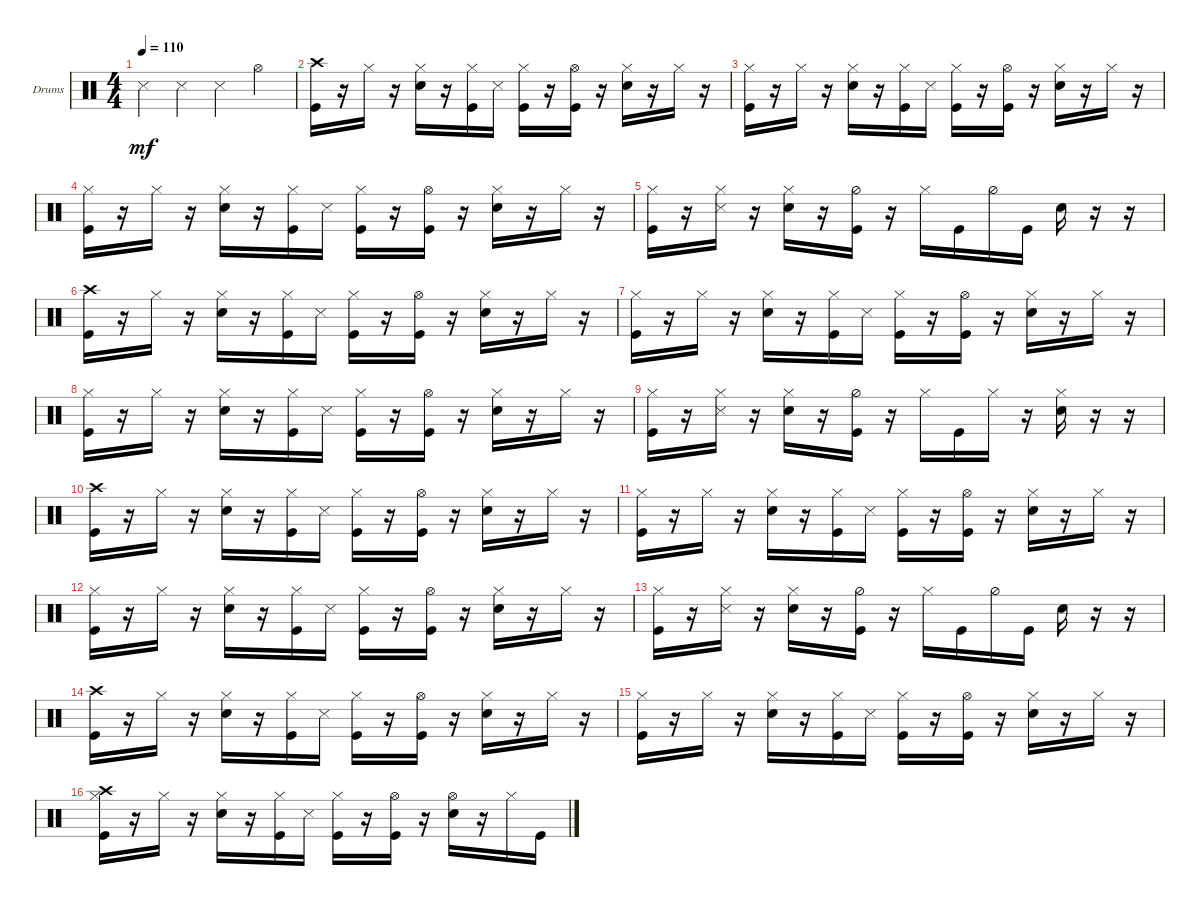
\defaultSystemsLayout 4
\bracketExtendMode groupsimilarinstruments
\firstSystemTrackNameOrientation horizontal
\otherSystemsTrackNameOrientation horizontal
\track ("Drumkit" "Drums") {instrument percussion}
\staff {score}
\articulation defaults
\ts (4 4)
\tempo 110
\clef neutral
\ks c "Snare (side stick) 3".4{dy mf} "Snare (side stick) 3".4 "Snare (side stick) 3".4 "Hi-Hat (open)".4
|
\scale
0.474178 ("Kick (hit)" "Crash high (hit)").16 r.16 "Hi-Hat (closed)".16 r.16 ("Snare (hit) 2" "Hi-Hat (closed)").16 r.16 ("Hi-Hat (closed)" "Kick (hit)").16 "Snare (side stick) 3".16 ("Hi-Hat (closed)" "Kick (hit)").16 r.16 ("Hi-Hat (open)" "Kick (hit)").16 r.16 ("Hi-Hat (closed)" "Snare (hit) 2").16 r.16 "Hi-Hat (closed)".16 r.16 |
\scale
0.262911 ("Kick (hit)" "Hi-Hat (closed)").16 r.16 "Hi-Hat (closed)".16 r.16 ("Snare (hit) 2" "Hi-Hat (closed)").16 r.16 ("Hi-Hat (closed)" "Kick (hit)").16 "Snare (side stick) 3".16 ("Hi-Hat (closed)" "Kick (hit)").16 r.16 ("Hi-Hat (open)" "Kick (hit)").16 r.16 ("Hi-Hat (closed)" "Snare (hit) 2").16 r.16 "Hi-Hat (closed)".16 r.16 |
\scale
0.262911 ("Kick (hit)" "Hi-Hat (closed)").16 r.16 "Hi-Hat (closed)".16 r.16 ("Snare (hit) 2" "Hi-Hat (closed)").16 r.16 ("Hi-Hat (closed)" "Kick (hit)").16 "Snare (side stick) 3".16 ("Hi-Hat (closed)" "Kick (hit)").16 r.16 ("Hi-Hat (open)" "Kick (hit)").16 r.16 ("Hi-Hat (closed)" "Snare (hit) 2").16 r.16 "Hi-Hat (closed)".16 r.16 |
\scale
0.333333 ("Hi-Hat (closed)" "Kick (hit)").16 r.16 ("Hi-Hat (closed)" "Snare (side stick) 3").16 r.16 ("Hi-Hat (closed)" "Snare (hit) 2").16 r.16 ("Hi-Hat (half)" "Kick (hit)").16 r.16 "Hi-Hat (closed)".16 "Kick (hit)".16 "Hi-Hat (half)".16 "Kick (hit)".16 "Snare (hit) 2".16 r.16 r.16 |
\scale
0.333333 ("Kick (hit)" "Crash high (hit)").16 r.16 "Hi-Hat (closed)".16 r.16 ("Snare (hit) 2" "Hi-Hat (closed)").16 r.16 ("Hi-Hat (closed)" "Kick (hit)").16 "Snare (side stick) 3".16 ("Hi-Hat (closed)" "Kick (hit)").16 r.16 ("Hi-Hat (open)" "Kick (hit)").16 r.16 ("Hi-Hat (closed)" "Snare (hit) 2").16 r.16 "Hi-Hat (closed)".16 r.16 |
\scale
0.333333 ("Kick (hit)" "Hi-Hat (closed)").16 r.16 "Hi-Hat (closed)".16 r.16 ("Snare (hit) 2" "Hi-Hat (closed)").16 r.16 ("Hi-Hat (closed)" "Kick (hit)").16 "Snare (side stick) 3".16 ("Hi-Hat (closed)" "Kick (hit)").16 r.16 ("Hi-Hat (open)" "Kick (hit)").16 r.16 ("Hi-Hat (closed)" "Snare (hit) 2").16 r.16 "Hi-Hat (closed)".16 r.16 |
\scale
0.333333 ("Kick (hit)" "Hi-Hat (closed)").16 r.16 "Hi-Hat (closed)".16 r.16 ("Snare (hit) 2" "Hi-Hat (closed)").16 r.16 ("Hi-Hat (closed)" "Kick (hit)").16 "Snare (side stick) 3".16 ("Hi-Hat (closed)" "Kick (hit)").16 r.16 ("Hi-Hat (open)" "Kick (hit)").16 r.16 ("Hi-Hat (closed)" "Snare (hit) 2").16 r.16 "Hi-Hat (closed)".16 r.16 |
\scale
0.333333 ("Hi-Hat (closed)" "Kick (hit)").16 r.16 ("Hi-Hat (closed)" "Snare (side stick) 3").16 r.16 ("Hi-Hat (closed)" "Snare (hit) 2").16 r.16 ("Hi-Hat (half)" "Kick (hit)").16 r.16 "Hi-Hat (closed)".16 "Kick (hit)".16 "Hi-Hat (closed)".16 r.16 ("Snare (hit) 2" "Hi-Hat (closed)").16 r.16 r.16 |
\scale
0.333333 ("Kick (hit)" "Crash high (hit)").16 r.16 "Hi-Hat (closed)".16 r.16 ("Snare (hit) 2" "Hi-Hat (closed)").16 r.16 ("Hi-Hat (closed)" "Kick (hit)").16 "Snare (side stick) 3".16 ("Hi-Hat (closed)" "Kick (hit)").16 r.16 ("Hi-Hat (open)" "Kick (hit)").16 r.16 ("Hi-Hat (closed)" "Snare (hit) 2").16 r.16 "Hi-Hat (closed)".16 r.16 |
\scale
0.333333 ("Kick (hit)" "Hi-Hat (closed)").16 r.16 "Hi-Hat (closed)".16 r.16 ("Snare (hit) 2" "Hi-Hat (closed)").16 r.16 ("Hi-Hat (closed)" "Kick (hit)").16 "Snare (side stick) 3".16 ("Hi-Hat (closed)" "Kick (hit)").16 r.16 ("Hi-Hat (open)" "Kick (hit)").16 r.16 ("Hi-Hat (closed)" "Snare (hit) 2").16 r.16 "Hi-Hat (closed)".16 r.16 |
\scale
0.333333 ("Kick (hit)" "Hi-Hat (closed)").16 r.16 "Hi-Hat (closed)".16 r.16 ("Snare (hit) 2" "Hi-Hat (closed)").16 r.16 ("Hi-Hat (closed)" "Kick (hit)").16 "Snare (side stick) 3".16 ("Hi-Hat (closed)" "Kick (hit)").16 r.16 ("Hi-Hat (open)" "Kick (hit)").16 r.16 ("Hi-Hat (closed)" "Snare (hit) 2").16 r.16 "Hi-Hat (closed)".16 r.16 |
\scale
0.333333 ("Hi-Hat (closed)" "Kick (hit)").16 r.16 ("Hi-Hat (closed)" "Snare (side stick) 3").16 r.16 ("Hi-Hat (closed)" "Snare (hit) 2").16 r.16 ("Hi-Hat (half)" "Kick (hit)").16 r.16 "Hi-Hat (closed)".16 "Kick (hit)".16 "Hi-Hat (half)".16 "Kick (hit)".16 "Snare (hit) 2".16 r.16 r.16 |
\scale
0.333333 ("Kick (hit)" "Crash high (hit)").16 r.16 "Hi-Hat (closed)".16 r.16 ("Snare (hit) 2" "Hi-Hat (closed)").16 r.16 ("Hi-Hat (closed)" "Kick (hit)").16 "Snare (side stick) 3".16 ("Hi-Hat (closed)" "Kick (hit)").16 r.16 ("Hi-Hat (open)" "Kick (hit)").16 r.16 ("Hi-Hat (closed)" "Snare (hit) 2").16 r.16 "Hi-Hat (closed)".16 r.16 |
\scale
0.333333 ("Kick (hit)" "Hi-Hat (closed)").16 r.16 "Hi-Hat (closed)".16 r.16 ("Snare (hit) 2" "Hi-Hat (closed)").16 r.16 ("Hi-Hat (closed)" "Kick (hit)").16 "Snare (side stick) 3".16 ("Hi-Hat (closed)" "Kick (hit)").16 r.16 ("Hi-Hat (open)" "Kick (hit)").16 r.16 ("Hi-Hat (closed)" "Snare (hit) 2").16 r.16 "Hi-Hat (closed)".16 r.16 |
\scale
0.333333 ("Kick (hit)" "Hi-Hat (closed)" "Crash high (hit)").16 r.16 "Hi-Hat (closed)".16 r.16 ("Snare (hit) 2" "Hi-Hat (closed)").16 r.16 ("Hi-Hat (closed)" "Kick (hit)").16 "Snare (side stick) 3".16 ("Hi-Hat (closed)" "Kick (hit)").16 r.16 ("Hi-Hat (open)" "Kick (hit)").16 r.16 ("Hi-Hat (open)" "Snare (hit) 2").16 r.16 "Hi-Hat (closed)".16 "Kick (hit)".16
